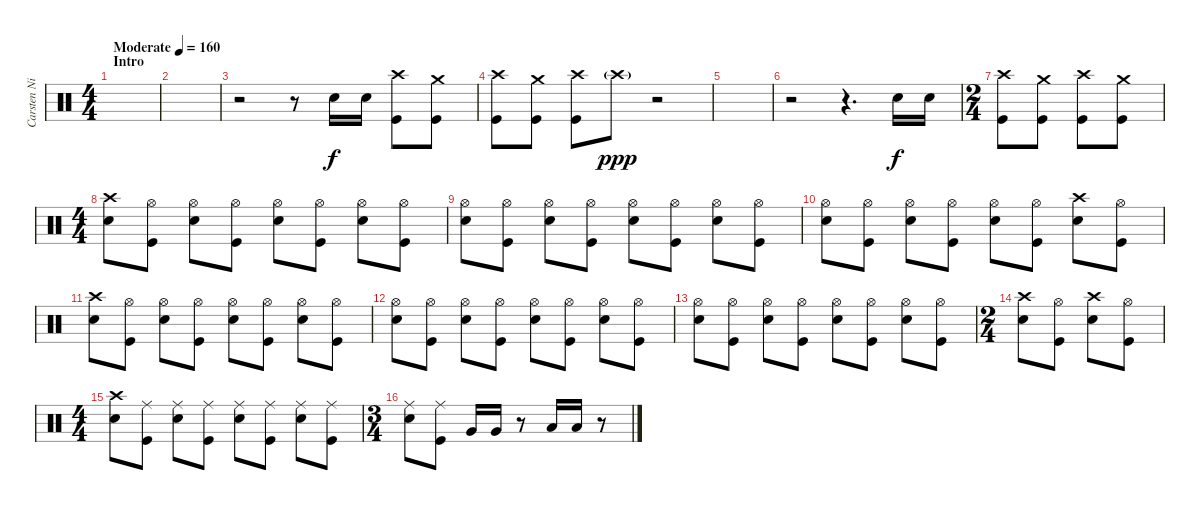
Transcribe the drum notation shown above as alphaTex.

\track ("Carsten Nielsen" "Carsten Ni") {instrument percussion}
\staff {score}
\articulation defaults
\ts (4 4)
\section ("" "Intro")
\tempo (160 "Moderate")
\clef neutral
\ks c
|
|
r.2 r.8 "Electric Snare (hit)".16 "Electric Snare (hit)".16 ("Crash high (hit)" "Kick (hit)").8 ("Crash medium (hit)" "Kick (hit)").8 |
("Crash high (hit)" "Kick (hit)").8 ("Crash medium (hit)" "Kick (hit)").8 ("Crash high (hit)" "Kick (hit)").8 "Crash high (hit)"{g}.8{dy ppp} r.2 |
|
r.2 r.4{d} "Electric Snare (hit)".16{dy f} "Electric Snare (hit)".16 |
\ts (2 4)
("Crash high (hit)" "Kick (hit)").8 ("Crash medium (hit)" "Kick (hit)").8 ("Crash high (hit)" "Kick (hit)").8 ("Crash medium (hit)" "Kick (hit)").8 |
\ts (4 4)
("Crash high (hit)" "Electric Snare (hit)").8 ("Hi-Hat (open)" "Kick (hit)").8 ("Hi-Hat (open)" "Electric Snare (hit)").8 ("Hi-Hat (open)" "Kick (hit)").8 ("Hi-Hat (open)" "Electric Snare (hit)").8 ("Hi-Hat (open)" "Kick (hit)").8 ("Hi-Hat (open)" "Electric Snare (hit)").8 ("Hi-Hat (open)" "Kick (hit)").8 |
("Hi-Hat (open)" "Electric Snare (hit)").8 ("Hi-Hat (open)" "Kick (hit)").8 ("Hi-Hat (open)" "Electric Snare (hit)").8 ("Hi-Hat (open)" "Kick (hit)").8 ("Hi-Hat (open)" "Electric Snare (hit)").8 ("Hi-Hat (open)" "Kick (hit)").8 ("Hi-Hat (open)" "Electric Snare (hit)").8 ("Hi-Hat (open)" "Kick (hit)").8 |
("Hi-Hat (open)" "Electric Snare (hit)").8 ("Hi-Hat (open)" "Kick (hit)").8 ("Hi-Hat (open)" "Electric Snare (hit)").8 ("Hi-Hat (open)" "Kick (hit)").8 ("Hi-Hat (open)" "Electric Snare (hit)").8 ("Hi-Hat (open)" "Kick (hit)").8 ("Crash high (hit)" "Electric Snare (hit)").8 ("Hi-Hat (open)" "Kick (hit)").8 |
("Crash high (hit)" "Electric Snare (hit)").8 ("Hi-Hat (open)" "Kick (hit)").8 ("Hi-Hat (open)" "Electric Snare (hit)").8 ("Hi-Hat (open)" "Kick (hit)").8 ("Hi-Hat (open)" "Electric Snare (hit)").8 ("Hi-Hat (open)" "Kick (hit)").8 ("Hi-Hat (open)" "Electric Snare (hit)").8 ("Hi-Hat (open)" "Kick (hit)").8 |
("Hi-Hat (open)" "Electric Snare (hit)").8 ("Hi-Hat (open)" "Kick (hit)").8 ("Hi-Hat (open)" "Electric Snare (hit)").8 ("Hi-Hat (open)" "Kick (hit)").8 ("Hi-Hat (open)" "Electric Snare (hit)").8 ("Hi-Hat (open)" "Kick (hit)").8 ("Hi-Hat (open)" "Electric Snare (hit)").8 ("Hi-Hat (open)" "Kick (hit)").8 |
("Hi-Hat (open)" "Electric Snare (hit)").8 ("Hi-Hat (open)" "Kick (hit)").8 ("Hi-Hat (open)" "Electric Snare (hit)").8 ("Hi-Hat (open)" "Kick (hit)").8 ("Hi-Hat (open)" "Electric Snare (hit)").8 ("Hi-Hat (open)" "Kick (hit)").8 ("Hi-Hat (open)" "Electric Snare (hit)").8 ("Hi-Hat (open)" "Kick (hit)").8 |
\ts (2 4)
("Crash high (hit)" "Electric Snare (hit)").8 ("Hi-Hat (open)" "Kick (hit)").8 ("Crash high (hit)" "Electric Snare (hit)").8 ("Hi-Hat (open)" "Kick (hit)").8 |
\ts (4 4)
("Crash high (hit)" "Electric Snare (hit)").8 ("Ride (middle)" "Kick (hit)").8 ("Ride (middle)" "Electric Snare (hit)").8 ("Ride (middle)" "Kick (hit)").8 ("Ride (middle)" "Electric Snare (hit)").8 ("Ride (middle)" "Kick (hit)").8 ("Ride (middle)" "Electric Snare (hit)").8 ("Ride (middle)" "Kick (hit)").8 |
\ts (3 4)
("Ride (middle)" "Electric Snare (hit)").8 ("Ride (middle)" "Kick (hit)").8 "Very Low Tom (hit)".16 "Very Low Tom (hit)".16 r.8 "Low Floor Tom (hit)".16 "Low Floor Tom (hit)".16 r.8
